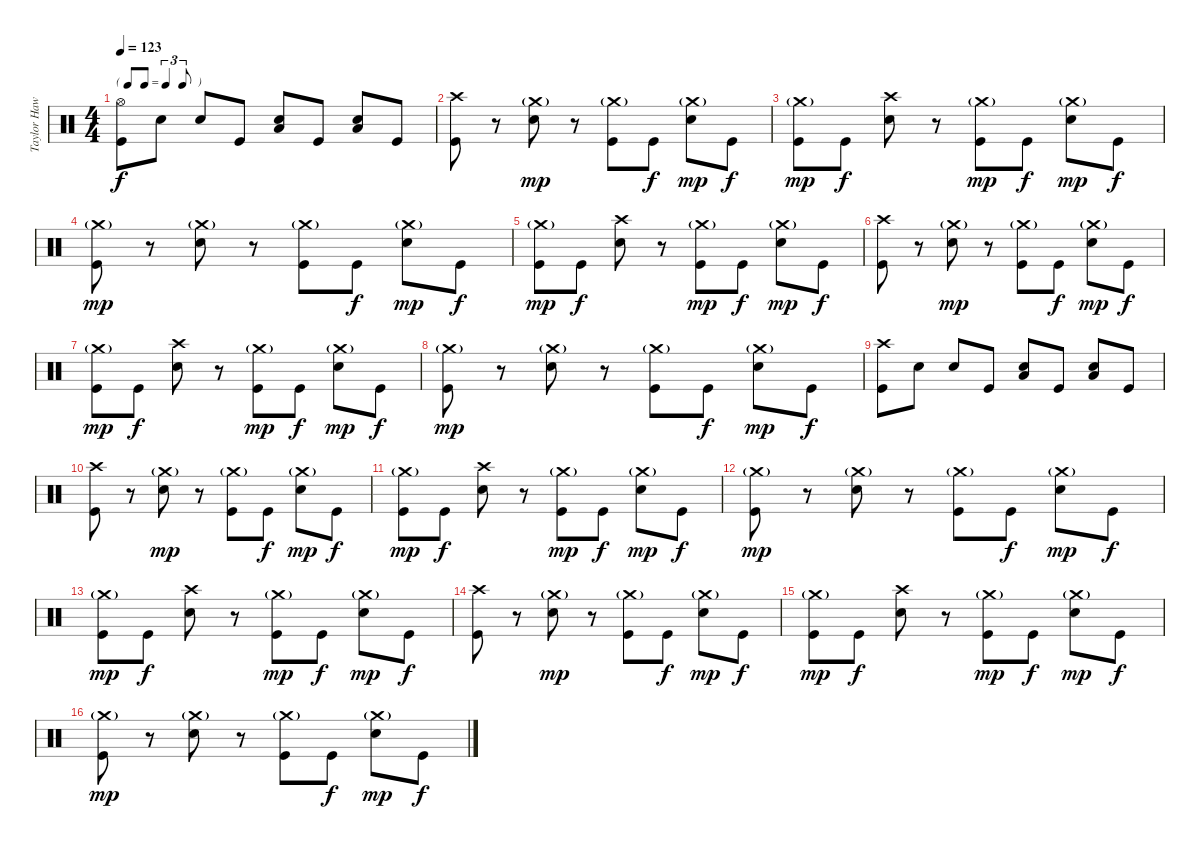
\track ("Taylor Hawkins - Drums" "Taylor Haw") {instrument percussion}
\staff {score}
\articulation defaults
\ts (4 4)
\tf triplet8th
\tempo 123
\clef neutral
\ks c
("Hi-Hat (open)" "Kick (hit)").8{dy f} "Electric Snare (hit)".8 "Electric Snare (hit)".8 "Kick (hit)".8 ("Electric Snare (hit)" "Low Tom (hit)").8 "Kick (hit)".8 ("Electric Snare (hit)" "Low Floor Tom (hit)").8 "Kick (hit)".8 |
("Crash high (hit)" "Kick (hit)").8 r.8 ("Crash medium (hit)"{g} "Electric Snare (hit)").8{dy mp} r.8 ("Crash medium (hit)"{g} "Kick (hit)").8 "Kick (hit)".8{dy f} ("Crash medium (hit)"{g} "Electric Snare (hit)").8{dy mp} "Kick (hit)".8{dy f} |
("Crash medium (hit)"{g} "Kick (hit)").8{dy mp} "Kick (hit)".8{dy f} ("Crash high (hit)" "Electric Snare (hit)").8 r.8 ("Crash medium (hit)"{g} "Kick (hit)").8{dy mp} "Kick (hit)".8{dy f} ("Crash medium (hit)"{g} "Electric Snare (hit)").8{dy mp} "Kick (hit)".8{dy f} |
("Crash medium (hit)"{g} "Kick (hit)").8{dy mp} r.8 ("Crash medium (hit)"{g} "Electric Snare (hit)").8 r.8 ("Crash medium (hit)"{g} "Kick (hit)").8 "Kick (hit)".8{dy f} ("Crash medium (hit)"{g} "Electric Snare (hit)").8{dy mp} "Kick (hit)".8{dy f} |
("Crash medium (hit)"{g} "Kick (hit)").8{dy mp} "Kick (hit)".8{dy f} ("Crash high (hit)" "Electric Snare (hit)").8 r.8 ("Crash medium (hit)"{g} "Kick (hit)").8{dy mp} "Kick (hit)".8{dy f} ("Crash medium (hit)"{g} "Electric Snare (hit)").8{dy mp} "Kick (hit)".8{dy f} |
("Crash high (hit)" "Kick (hit)").8 r.8 ("Crash medium (hit)"{g} "Electric Snare (hit)").8{dy mp} r.8 ("Crash medium (hit)"{g} "Kick (hit)").8 "Kick (hit)".8{dy f} ("Crash medium (hit)"{g} "Electric Snare (hit)").8{dy mp} "Kick (hit)".8{dy f} |
("Crash medium (hit)"{g} "Kick (hit)").8{dy mp} "Kick (hit)".8{dy f} ("Crash high (hit)" "Electric Snare (hit)").8 r.8 ("Crash medium (hit)"{g} "Kick (hit)").8{dy mp} "Kick (hit)".8{dy f} ("Crash medium (hit)"{g} "Electric Snare (hit)").8{dy mp} "Kick (hit)".8{dy f} |
("Crash medium (hit)"{g} "Kick (hit)").8{dy mp} r.8 ("Crash medium (hit)"{g} "Electric Snare (hit)").8 r.8 ("Crash medium (hit)"{g} "Kick (hit)").8 "Kick (hit)".8{dy f} ("Crash medium (hit)"{g} "Electric Snare (hit)").8{dy mp} "Kick (hit)".8{dy f} |
("Crash high (hit)" "Kick (hit)").8 "Electric Snare (hit)".8 "Electric Snare (hit)".8 "Kick (hit)".8 ("Electric Snare (hit)" "Low Tom (hit)").8 "Kick (hit)".8 ("Electric Snare (hit)" "Low Floor Tom (hit)").8 "Kick (hit)".8 |
("Crash high (hit)" "Kick (hit)").8 r.8 ("Crash medium (hit)"{g} "Electric Snare (hit)").8{dy mp} r.8 ("Crash medium (hit)"{g} "Kick (hit)").8 "Kick (hit)".8{dy f} ("Crash medium (hit)"{g} "Electric Snare (hit)").8{dy mp} "Kick (hit)".8{dy f} |
("Crash medium (hit)"{g} "Kick (hit)").8{dy mp} "Kick (hit)".8{dy f} ("Crash high (hit)" "Electric Snare (hit)").8 r.8 ("Crash medium (hit)"{g} "Kick (hit)").8{dy mp} "Kick (hit)".8{dy f} ("Crash medium (hit)"{g} "Electric Snare (hit)").8{dy mp} "Kick (hit)".8{dy f} |
("Crash medium (hit)"{g} "Kick (hit)").8{dy mp} r.8 ("Crash medium (hit)"{g} "Electric Snare (hit)").8 r.8 ("Crash medium (hit)"{g} "Kick (hit)").8 "Kick (hit)".8{dy f} ("Crash medium (hit)"{g} "Electric Snare (hit)").8{dy mp} "Kick (hit)".8{dy f} |
("Crash medium (hit)"{g} "Kick (hit)").8{dy mp} "Kick (hit)".8{dy f} ("Crash high (hit)" "Electric Snare (hit)").8 r.8 ("Crash medium (hit)"{g} "Kick (hit)").8{dy mp} "Kick (hit)".8{dy f} ("Crash medium (hit)"{g} "Electric Snare (hit)").8{dy mp} "Kick (hit)".8{dy f} |
("Crash high (hit)" "Kick (hit)").8 r.8 ("Crash medium (hit)"{g} "Electric Snare (hit)").8{dy mp} r.8 ("Crash medium (hit)"{g} "Kick (hit)").8 "Kick (hit)".8{dy f} ("Crash medium (hit)"{g} "Electric Snare (hit)").8{dy mp} "Kick (hit)".8{dy f} |
("Crash medium (hit)"{g} "Kick (hit)").8{dy mp} "Kick (hit)".8{dy f} ("Crash high (hit)" "Electric Snare (hit)").8 r.8 ("Crash medium (hit)"{g} "Kick (hit)").8{dy mp} "Kick (hit)".8{dy f} ("Crash medium (hit)"{g} "Electric Snare (hit)").8{dy mp} "Kick (hit)".8{dy f} |
("Crash medium (hit)"{g} "Kick (hit)").8{dy mp} r.8 ("Crash medium (hit)"{g} "Electric Snare (hit)").8 r.8 ("Crash medium (hit)"{g} "Kick (hit)").8 "Kick (hit)".8{dy f} ("Crash medium (hit)"{g} "Electric Snare (hit)").8{dy mp} "Kick (hit)".8{dy f}
